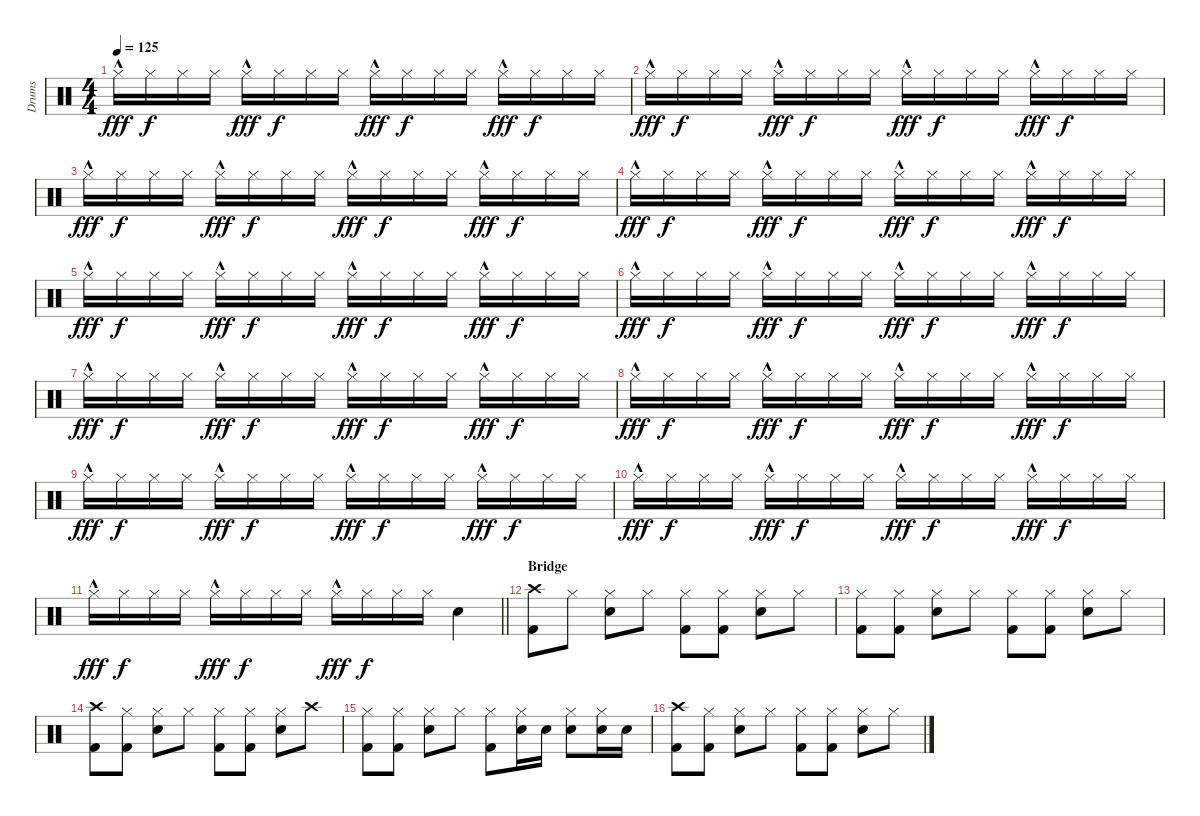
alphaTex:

\track ("Drums" "Drums") {instrument percussion}
\staff {score}
\articulation defaults
\ts (4 4)
\tempo 125
\clef neutral
\ks c "Hi-Hat (closed)"{hac}.16{dy fff} "Hi-Hat (closed)".16{dy f} "Hi-Hat (closed)".16 "Hi-Hat (closed)".16 "Hi-Hat (closed)"{hac}.16{dy fff} "Hi-Hat (closed)".16{dy f} "Hi-Hat (closed)".16 "Hi-Hat (closed)".16 "Hi-Hat (closed)"{hac}.16{dy fff} "Hi-Hat (closed)".16{dy f} "Hi-Hat (closed)".16 "Hi-Hat (closed)".16 "Hi-Hat (closed)"{hac}.16{dy fff} "Hi-Hat (closed)".16{dy f} "Hi-Hat (closed)".16 "Hi-Hat (closed)".16
|
"Hi-Hat (closed)"{hac}.16{dy fff} "Hi-Hat (closed)".16{dy f} "Hi-Hat (closed)".16 "Hi-Hat (closed)".16 "Hi-Hat (closed)"{hac}.16{dy fff} "Hi-Hat (closed)".16{dy f} "Hi-Hat (closed)".16 "Hi-Hat (closed)".16 "Hi-Hat (closed)"{hac}.16{dy fff} "Hi-Hat (closed)".16{dy f} "Hi-Hat (closed)".16 "Hi-Hat (closed)".16 "Hi-Hat (closed)"{hac}.16{dy fff} "Hi-Hat (closed)".16{dy f} "Hi-Hat (closed)".16 "Hi-Hat (closed)".16 |
"Hi-Hat (closed)"{hac}.16{dy fff} "Hi-Hat (closed)".16{dy f} "Hi-Hat (closed)".16 "Hi-Hat (closed)".16 "Hi-Hat (closed)"{hac}.16{dy fff} "Hi-Hat (closed)".16{dy f} "Hi-Hat (closed)".16 "Hi-Hat (closed)".16 "Hi-Hat (closed)"{hac}.16{dy fff} "Hi-Hat (closed)".16{dy f} "Hi-Hat (closed)".16 "Hi-Hat (closed)".16 "Hi-Hat (closed)"{hac}.16{dy fff} "Hi-Hat (closed)".16{dy f} "Hi-Hat (closed)".16 "Hi-Hat (closed)".16 |
"Hi-Hat (closed)"{hac}.16{dy fff} "Hi-Hat (closed)".16{dy f} "Hi-Hat (closed)".16 "Hi-Hat (closed)".16 "Hi-Hat (closed)"{hac}.16{dy fff} "Hi-Hat (closed)".16{dy f} "Hi-Hat (closed)".16 "Hi-Hat (closed)".16 "Hi-Hat (closed)"{hac}.16{dy fff} "Hi-Hat (closed)".16{dy f} "Hi-Hat (closed)".16 "Hi-Hat (closed)".16 "Hi-Hat (closed)"{hac}.16{dy fff} "Hi-Hat (closed)".16{dy f} "Hi-Hat (closed)".16 "Hi-Hat (closed)".16 |
"Hi-Hat (closed)"{hac}.16{dy fff} "Hi-Hat (closed)".16{dy f} "Hi-Hat (closed)".16 "Hi-Hat (closed)".16 "Hi-Hat (closed)"{hac}.16{dy fff} "Hi-Hat (closed)".16{dy f} "Hi-Hat (closed)".16 "Hi-Hat (closed)".16 "Hi-Hat (closed)"{hac}.16{dy fff} "Hi-Hat (closed)".16{dy f} "Hi-Hat (closed)".16 "Hi-Hat (closed)".16 "Hi-Hat (closed)"{hac}.16{dy fff} "Hi-Hat (closed)".16{dy f} "Hi-Hat (closed)".16 "Hi-Hat (closed)".16 |
"Hi-Hat (closed)"{hac}.16{dy fff} "Hi-Hat (closed)".16{dy f} "Hi-Hat (closed)".16 "Hi-Hat (closed)".16 "Hi-Hat (closed)"{hac}.16{dy fff} "Hi-Hat (closed)".16{dy f} "Hi-Hat (closed)".16 "Hi-Hat (closed)".16 "Hi-Hat (closed)"{hac}.16{dy fff} "Hi-Hat (closed)".16{dy f} "Hi-Hat (closed)".16 "Hi-Hat (closed)".16 "Hi-Hat (closed)"{hac}.16{dy fff} "Hi-Hat (closed)".16{dy f} "Hi-Hat (closed)".16 "Hi-Hat (closed)".16 |
"Hi-Hat (closed)"{hac}.16{dy fff} "Hi-Hat (closed)".16{dy f} "Hi-Hat (closed)".16 "Hi-Hat (closed)".16 "Hi-Hat (closed)"{hac}.16{dy fff} "Hi-Hat (closed)".16{dy f} "Hi-Hat (closed)".16 "Hi-Hat (closed)".16 "Hi-Hat (closed)"{hac}.16{dy fff} "Hi-Hat (closed)".16{dy f} "Hi-Hat (closed)".16 "Hi-Hat (closed)".16 "Hi-Hat (closed)"{hac}.16{dy fff} "Hi-Hat (closed)".16{dy f} "Hi-Hat (closed)".16 "Hi-Hat (closed)".16 |
"Hi-Hat (closed)"{hac}.16{dy fff} "Hi-Hat (closed)".16{dy f} "Hi-Hat (closed)".16 "Hi-Hat (closed)".16 "Hi-Hat (closed)"{hac}.16{dy fff} "Hi-Hat (closed)".16{dy f} "Hi-Hat (closed)".16 "Hi-Hat (closed)".16 "Hi-Hat (closed)"{hac}.16{dy fff} "Hi-Hat (closed)".16{dy f} "Hi-Hat (closed)".16 "Hi-Hat (closed)".16 "Hi-Hat (closed)"{hac}.16{dy fff} "Hi-Hat (closed)".16{dy f} "Hi-Hat (closed)".16 "Hi-Hat (closed)".16 |
"Hi-Hat (closed)"{hac}.16{dy fff} "Hi-Hat (closed)".16{dy f} "Hi-Hat (closed)".16 "Hi-Hat (closed)".16 "Hi-Hat (closed)"{hac}.16{dy fff} "Hi-Hat (closed)".16{dy f} "Hi-Hat (closed)".16 "Hi-Hat (closed)".16 "Hi-Hat (closed)"{hac}.16{dy fff} "Hi-Hat (closed)".16{dy f} "Hi-Hat (closed)".16 "Hi-Hat (closed)".16 "Hi-Hat (closed)"{hac}.16{dy fff} "Hi-Hat (closed)".16{dy f} "Hi-Hat (closed)".16 "Hi-Hat (closed)".16 |
"Hi-Hat (closed)"{hac}.16{dy fff} "Hi-Hat (closed)".16{dy f} "Hi-Hat (closed)".16 "Hi-Hat (closed)".16 "Hi-Hat (closed)"{hac}.16{dy fff} "Hi-Hat (closed)".16{dy f} "Hi-Hat (closed)".16 "Hi-Hat (closed)".16 "Hi-Hat (closed)"{hac}.16{dy fff} "Hi-Hat (closed)".16{dy f} "Hi-Hat (closed)".16 "Hi-Hat (closed)".16 "Hi-Hat (closed)"{hac}.16{dy fff} "Hi-Hat (closed)".16{dy f} "Hi-Hat (closed)".16 "Hi-Hat (closed)".16 |
\barLineRight lightlight "Hi-Hat (closed)"{hac}.16{dy fff} "Hi-Hat (closed)".16{dy f} "Hi-Hat (closed)".16 "Hi-Hat (closed)".16 "Hi-Hat (closed)"{hac}.16{dy fff} "Hi-Hat (closed)".16{dy f} "Hi-Hat (closed)".16 "Hi-Hat (closed)".16 "Hi-Hat (closed)"{hac}.16{dy fff} "Hi-Hat (closed)".16{dy f} "Hi-Hat (closed)".16 "Hi-Hat (closed)".16 "Electric Snare (hit)".4
|
\section ("" "Bridge")
("Crash high (hit)" "Kick (hit) 2").8 "Hi-Hat (closed)".8 ("Hi-Hat (closed)" "Electric Snare (hit)").8 "Hi-Hat (closed)".8 ("Hi-Hat (closed)" "Kick (hit) 2").8 ("Hi-Hat (closed)" "Kick (hit) 2").8 ("Hi-Hat (closed)" "Electric Snare (hit)").8 "Hi-Hat (closed)".8 |
("Hi-Hat (closed)" "Kick (hit) 2").8 ("Hi-Hat (closed)" "Kick (hit) 2").8 ("Hi-Hat (closed)" "Electric Snare (hit)").8 "Hi-Hat (closed)".8 ("Hi-Hat (closed)" "Kick (hit) 2").8 ("Hi-Hat (closed)" "Kick (hit) 2").8 ("Hi-Hat (closed)" "Electric Snare (hit)").8 "Hi-Hat (closed)".8 |
("Crash high (hit)" "Kick (hit) 2").8 ("Hi-Hat (closed)" "Kick (hit) 2").8 ("Hi-Hat (closed)" "Electric Snare (hit)").8 "Hi-Hat (closed)".8 ("Hi-Hat (closed)" "Kick (hit) 2").8 ("Hi-Hat (closed)" "Kick (hit) 2").8 ("Hi-Hat (closed)" "Electric Snare (hit)").8 "Crash high (hit)".8 |
("Hi-Hat (closed)" "Kick (hit) 2").8 ("Hi-Hat (closed)" "Kick (hit) 2").8 ("Hi-Hat (closed)" "Electric Snare (hit)").8 "Hi-Hat (closed)".8 ("Hi-Hat (closed)" "Kick (hit) 2").8 ("Hi-Hat (closed)" "Electric Snare (hit)").16 "Electric Snare (hit)".16 ("Hi-Hat (closed)" "Electric Snare (hit)").8 ("Hi-Hat (closed)" "Electric Snare (hit)").16 "Electric Snare (hit)".16 |
("Crash high (hit)" "Kick (hit) 2").8 ("Hi-Hat (closed)" "Kick (hit) 2").8 ("Hi-Hat (closed)" "Electric Snare (hit)").8 "Hi-Hat (closed)".8 ("Hi-Hat (closed)" "Kick (hit) 2").8 ("Hi-Hat (closed)" "Kick (hit) 2").8 ("Hi-Hat (closed)" "Electric Snare (hit)").8 "Hi-Hat (closed)".8
